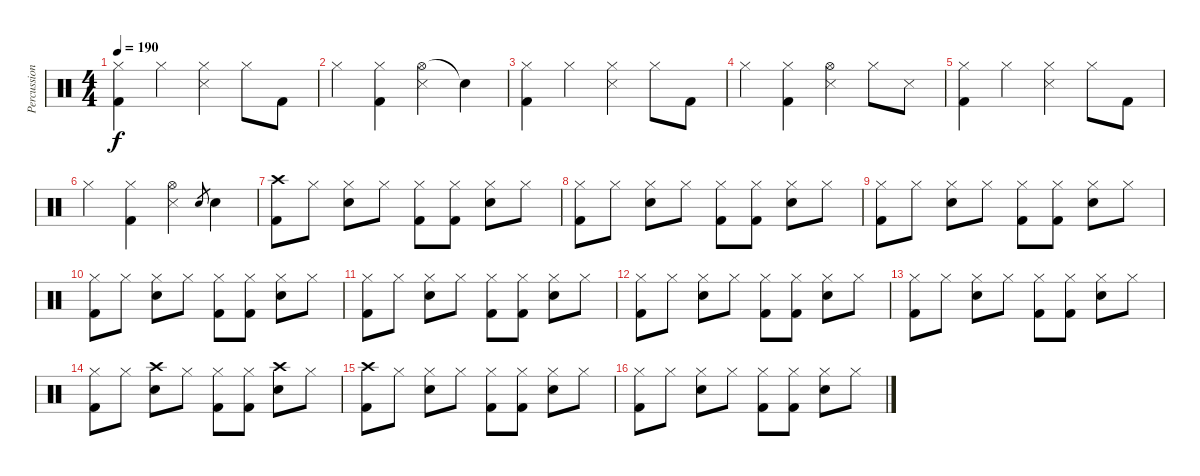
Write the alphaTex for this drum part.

\track ("Percussion" "Percussion") {instrument percussion}
\staff {score}
\articulation defaults
\ts (4 4)
\tempo 190
\clef neutral
\ks c
("Hi-Hat (closed)" "Kick (hit) 2").4{dy f} "Hi-Hat (closed)".4 ("Hi-Hat (closed)" "Snare (side stick) 3").4 "Hi-Hat (closed)".8 "Kick (hit) 2".8 |
"Hi-Hat (closed)".4 ("Hi-Hat (closed)" "Kick (hit) 2").4 ("Hi-Hat (open)" "Snare (side stick) 3").4 "Snare (hit)"{t}.4 |
("Hi-Hat (closed)" "Kick (hit) 2").4 "Hi-Hat (closed)".4 ("Hi-Hat (closed)" "Snare (side stick) 3").4 "Hi-Hat (closed)".8 "Kick (hit) 2".8 |
"Hi-Hat (closed)".4 ("Hi-Hat (closed)" "Kick (hit) 2").4 ("Hi-Hat (open)" "Snare (side stick) 3").4 "Hi-Hat (closed)".8 "Snare (side stick) 3".8 |
("Hi-Hat (closed)" "Kick (hit) 2").4 "Hi-Hat (closed)".4 ("Hi-Hat (closed)" "Snare (side stick) 3").4 "Hi-Hat (closed)".8 "Kick (hit) 2".8 |
"Hi-Hat (closed)".4 ("Hi-Hat (closed)" "Kick (hit) 2").4 ("Hi-Hat (open)" "Snare (side stick) 3").4 "Electric Snare (hit)".8{gr} "Electric Snare (hit)".4 |
("Crash high (hit)" "Kick (hit) 2").8 "Hi-Hat (closed)".8 ("Hi-Hat (closed)" "Electric Snare (hit)").8 "Hi-Hat (closed)".8 ("Hi-Hat (closed)" "Kick (hit) 2").8 ("Hi-Hat (closed)" "Kick (hit) 2").8 ("Hi-Hat (closed)" "Electric Snare (hit)").8 "Hi-Hat (closed)".8 |
("Hi-Hat (closed)" "Kick (hit) 2").8 "Hi-Hat (closed)".8 ("Hi-Hat (closed)" "Electric Snare (hit)").8 "Hi-Hat (closed)".8 ("Hi-Hat (closed)" "Kick (hit) 2").8 ("Hi-Hat (closed)" "Kick (hit) 2").8 ("Hi-Hat (closed)" "Electric Snare (hit)").8 "Hi-Hat (closed)".8 |
("Hi-Hat (closed)" "Kick (hit) 2").8 "Hi-Hat (closed)".8 ("Hi-Hat (closed)" "Electric Snare (hit)").8 "Hi-Hat (closed)".8 ("Hi-Hat (closed)" "Kick (hit) 2").8 ("Hi-Hat (closed)" "Kick (hit) 2").8 ("Hi-Hat (closed)" "Electric Snare (hit)").8 "Hi-Hat (closed)".8 |
("Hi-Hat (closed)" "Kick (hit) 2").8 "Hi-Hat (closed)".8 ("Hi-Hat (closed)" "Electric Snare (hit)").8 "Hi-Hat (closed)".8 ("Hi-Hat (closed)" "Kick (hit) 2").8 ("Hi-Hat (closed)" "Kick (hit) 2").8 ("Hi-Hat (closed)" "Electric Snare (hit)").8 "Hi-Hat (closed)".8 |
("Hi-Hat (closed)" "Kick (hit) 2").8 "Hi-Hat (closed)".8 ("Hi-Hat (closed)" "Electric Snare (hit)").8 "Hi-Hat (closed)".8 ("Hi-Hat (closed)" "Kick (hit) 2").8 ("Hi-Hat (closed)" "Kick (hit) 2").8 ("Hi-Hat (closed)" "Electric Snare (hit)").8 "Hi-Hat (closed)".8 |
("Hi-Hat (closed)" "Kick (hit) 2").8 "Hi-Hat (closed)".8 ("Hi-Hat (closed)" "Electric Snare (hit)").8 "Hi-Hat (closed)".8 ("Hi-Hat (closed)" "Kick (hit) 2").8 ("Hi-Hat (closed)" "Kick (hit) 2").8 ("Hi-Hat (closed)" "Electric Snare (hit)").8 "Hi-Hat (closed)".8 |
("Hi-Hat (closed)" "Kick (hit) 2").8 "Hi-Hat (closed)".8 ("Hi-Hat (closed)" "Electric Snare (hit)").8 "Hi-Hat (closed)".8 ("Hi-Hat (closed)" "Kick (hit) 2").8 ("Hi-Hat (closed)" "Kick (hit) 2").8 ("Hi-Hat (closed)" "Electric Snare (hit)").8 "Hi-Hat (closed)".8 |
("Hi-Hat (closed)" "Kick (hit) 2").8 "Hi-Hat (closed)".8 ("Crash high (hit)" "Electric Snare (hit)").8 "Hi-Hat (closed)".8 ("Hi-Hat (closed)" "Kick (hit) 2").8 ("Hi-Hat (closed)" "Kick (hit) 2").8 ("Crash high (hit)" "Electric Snare (hit)").8 "Hi-Hat (closed)".8 |
("Crash high (hit)" "Kick (hit) 2").8 "Hi-Hat (closed)".8 ("Hi-Hat (closed)" "Electric Snare (hit)").8 "Hi-Hat (closed)".8 ("Hi-Hat (closed)" "Kick (hit) 2").8 ("Hi-Hat (closed)" "Kick (hit) 2").8 ("Hi-Hat (closed)" "Electric Snare (hit)").8 "Hi-Hat (closed)".8 |
("Hi-Hat (closed)" "Kick (hit) 2").8 "Hi-Hat (closed)".8 ("Hi-Hat (closed)" "Electric Snare (hit)").8 "Hi-Hat (closed)".8 ("Hi-Hat (closed)" "Kick (hit) 2").8 ("Hi-Hat (closed)" "Kick (hit) 2").8 ("Hi-Hat (closed)" "Electric Snare (hit)").8 "Hi-Hat (closed)".8
